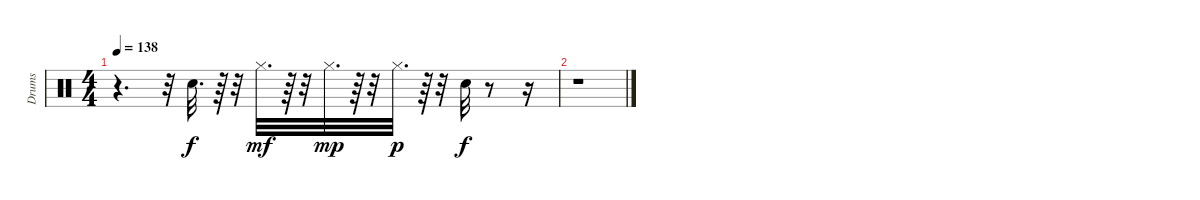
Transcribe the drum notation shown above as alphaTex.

\track ("Drums" "Drums") {instrument percussion}
\staff {score}
\articulation defaults
\ts (4 4)
\tempo 138
\clef neutral
\ks c
r.4{d dy p} r.32 "Hand Clap (hit)".32{d dy f} r.64 r.32 "Hi-Hat (closed)".32{d dy mf} r.64 r.32 "Hi-Hat (closed)".32{d dy mp} r.64 r.32 "Hi-Hat (closed)".32{d dy p} r.64 r.32 "Hand Clap (hit)".32{dy f} r.8 r.16 |
r.1
